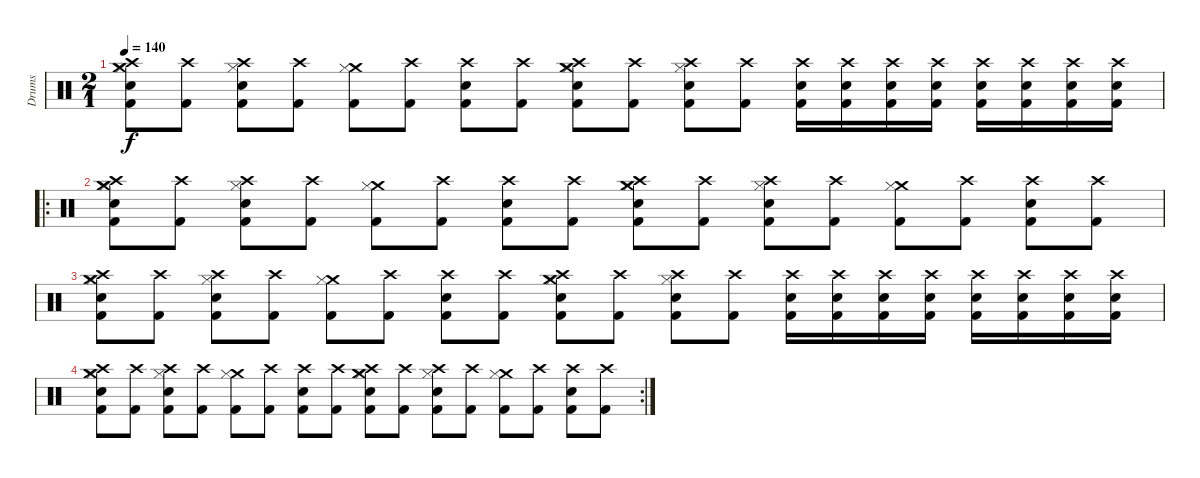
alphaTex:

\track ("Drums" "Drums") {instrument percussion}
\staff {score}
\articulation defaults
\ts (2 1)
\tempo 140
\clef neutral
\ks c
("Crash high (hit)" "Crash medium (hit)" "Kick (hit) 2" "Hi-Hat (closed)" "Snare (hit) 2").8{dy f} ("Crash high (hit)" "Kick (hit) 2").8 ("Crash high (hit)" "Kick (hit) 2" "Hi-Hat (closed)" "Snare (hit) 2").8 ("Crash high (hit)" "Kick (hit) 2").8 ("Crash medium (hit)" "Kick (hit) 2" "Hi-Hat (closed)").8 ("Crash high (hit)" "Kick (hit) 2").8 ("Crash high (hit)" "Kick (hit) 2" "Snare (hit) 2").8 ("Crash high (hit)" "Kick (hit) 2").8 ("Crash high (hit)" "Crash medium (hit)" "Kick (hit) 2" "Hi-Hat (closed)" "Snare (hit) 2").8 ("Crash high (hit)" "Kick (hit) 2").8 ("Crash high (hit)" "Kick (hit) 2" "Hi-Hat (closed)" "Snare (hit) 2").8 ("Crash high (hit)" "Kick (hit) 2").8 ("Crash high (hit)" "Snare (hit) 2" "Kick (hit) 2").16 ("Crash high (hit)" "Snare (hit) 2" "Kick (hit) 2").16 ("Crash high (hit)" "Snare (hit) 2" "Kick (hit) 2").16 ("Crash high (hit)" "Snare (hit) 2" "Kick (hit) 2").16 ("Crash high (hit)" "Snare (hit) 2" "Kick (hit) 2").16 ("Crash high (hit)" "Snare (hit) 2" "Kick (hit) 2").16 ("Crash high (hit)" "Snare (hit) 2" "Kick (hit) 2").16 ("Crash high (hit)" "Snare (hit) 2" "Kick (hit) 2").16 |
\ro
("Crash high (hit)" "Crash medium (hit)" "Kick (hit) 2" "Hi-Hat (closed)" "Snare (hit) 2").8 ("Crash high (hit)" "Kick (hit) 2").8 ("Crash high (hit)" "Kick (hit) 2" "Hi-Hat (closed)" "Snare (hit) 2").8 ("Crash high (hit)" "Kick (hit) 2").8 ("Crash medium (hit)" "Kick (hit) 2" "Hi-Hat (closed)").8 ("Crash high (hit)" "Kick (hit) 2").8 ("Crash high (hit)" "Kick (hit) 2" "Snare (hit) 2").8 ("Crash high (hit)" "Kick (hit) 2").8 ("Crash high (hit)" "Crash medium (hit)" "Kick (hit) 2" "Hi-Hat (closed)" "Snare (hit) 2").8 ("Crash high (hit)" "Kick (hit) 2").8 ("Crash high (hit)" "Kick (hit) 2" "Hi-Hat (closed)" "Snare (hit) 2").8 ("Crash high (hit)" "Kick (hit) 2").8 ("Crash medium (hit)" "Kick (hit) 2" "Hi-Hat (closed)").8 ("Crash high (hit)" "Kick (hit) 2").8 ("Crash high (hit)" "Kick (hit) 2" "Snare (hit) 2").8 ("Crash high (hit)" "Kick (hit) 2").8 |
("Crash high (hit)" "Crash medium (hit)" "Kick (hit) 2" "Hi-Hat (closed)" "Snare (hit) 2").8 ("Crash high (hit)" "Kick (hit) 2").8 ("Crash high (hit)" "Kick (hit) 2" "Hi-Hat (closed)" "Snare (hit) 2").8 ("Crash high (hit)" "Kick (hit) 2").8 ("Crash medium (hit)" "Kick (hit) 2" "Hi-Hat (closed)").8 ("Crash high (hit)" "Kick (hit) 2").8 ("Crash high (hit)" "Kick (hit) 2" "Snare (hit) 2").8 ("Crash high (hit)" "Kick (hit) 2").8 ("Crash high (hit)" "Crash medium (hit)" "Kick (hit) 2" "Hi-Hat (closed)" "Snare (hit) 2").8 ("Crash high (hit)" "Kick (hit) 2").8 ("Crash high (hit)" "Kick (hit) 2" "Hi-Hat (closed)" "Snare (hit) 2").8 ("Crash high (hit)" "Kick (hit) 2").8 ("Crash high (hit)" "Snare (hit) 2" "Kick (hit) 2").16 ("Crash high (hit)" "Snare (hit) 2" "Kick (hit) 2").16 ("Crash high (hit)" "Snare (hit) 2" "Kick (hit) 2").16 ("Crash high (hit)" "Snare (hit) 2" "Kick (hit) 2").16 ("Crash high (hit)" "Snare (hit) 2" "Kick (hit) 2").16 ("Crash high (hit)" "Snare (hit) 2" "Kick (hit) 2").16 ("Crash high (hit)" "Snare (hit) 2" "Kick (hit) 2").16 ("Crash high (hit)" "Snare (hit) 2" "Kick (hit) 2").16 |
\rc 2
("Crash high (hit)" "Crash medium (hit)" "Kick (hit) 2" "Hi-Hat (closed)" "Snare (hit) 2").8 ("Crash high (hit)" "Kick (hit) 2").8 ("Crash high (hit)" "Kick (hit) 2" "Hi-Hat (closed)" "Snare (hit) 2").8 ("Crash high (hit)" "Kick (hit) 2").8 ("Crash medium (hit)" "Kick (hit) 2" "Hi-Hat (closed)").8 ("Crash high (hit)" "Kick (hit) 2").8 ("Crash high (hit)" "Kick (hit) 2" "Snare (hit) 2").8 ("Crash high (hit)" "Kick (hit) 2").8 ("Crash high (hit)" "Crash medium (hit)" "Kick (hit) 2" "Hi-Hat (closed)" "Snare (hit) 2").8 ("Crash high (hit)" "Kick (hit) 2").8 ("Crash high (hit)" "Kick (hit) 2" "Hi-Hat (closed)" "Snare (hit) 2").8 ("Crash high (hit)" "Kick (hit) 2").8 ("Crash medium (hit)" "Kick (hit) 2" "Hi-Hat (closed)").8 ("Crash high (hit)" "Kick (hit) 2").8 ("Crash high (hit)" "Kick (hit) 2" "Snare (hit) 2").8 ("Crash high (hit)" "Kick (hit) 2").8
